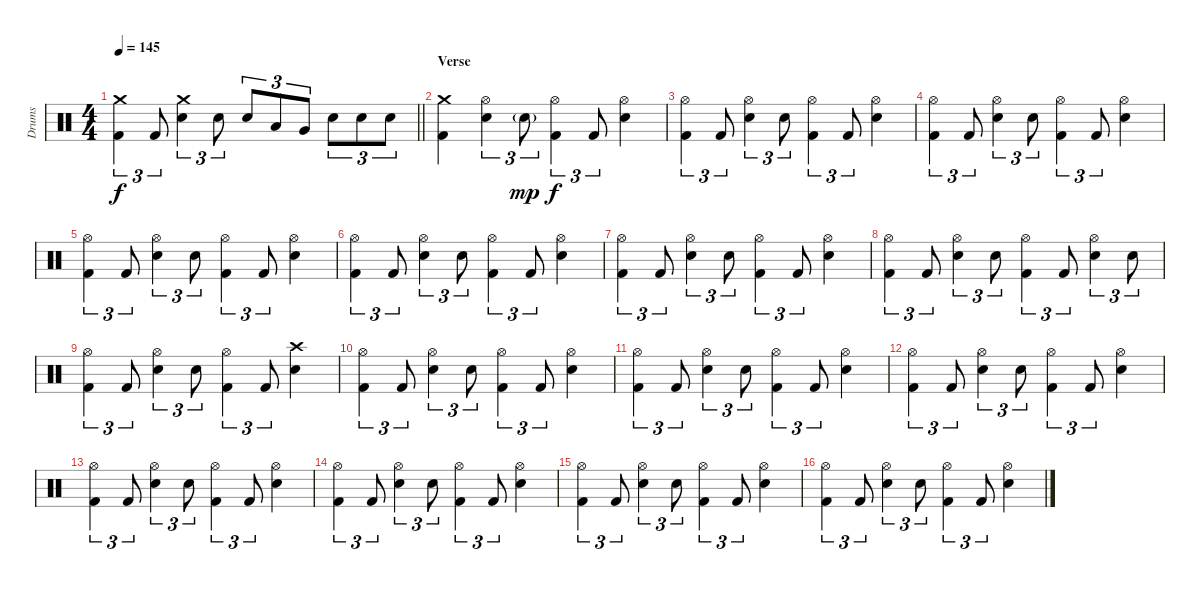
\track ("Drums" "Drums") {instrument percussion}
\staff {score}
\articulation defaults
\ts (4 4)
\tempo 145
\clef neutral
\barLineRight lightlight
\ks c
("Crash medium (hit)" "Kick (hit) 2").4{tu (3 2) dy f} "Kick (hit) 2".8{tu (3 2)} ("Crash medium (hit)" "Electric Snare (hit)").4{tu (3 2)} "Electric Snare (hit)".8{tu (3 2)} "Electric Snare (hit)".8{tu (3 2)} "Low Tom (hit)".8{tu (3 2)} "Very Low Tom (hit)".8{tu (3 2)} "Electric Snare (hit)".8{tu (3 2)} "Electric Snare (hit)".8{tu (3 2)} "Electric Snare (hit)".8{tu (3 2)} |
\section ("" "Verse")
("Crash medium (hit)" "Kick (hit) 2").4 ("Hi-Hat (open)" "Electric Snare (hit)").4{tu (3 2)} "Electric Snare (hit)"{g}.8{tu (3 2) dy mp} ("Hi-Hat (open)" "Kick (hit) 2").4{tu (3 2) dy f} "Kick (hit) 2".8{tu (3 2)} ("Hi-Hat (open)" "Electric Snare (hit)").4 |
("Hi-Hat (open)" "Kick (hit) 2").4{tu (3 2)} "Kick (hit) 2".8{tu (3 2)} ("Hi-Hat (open)" "Electric Snare (hit)").4{tu (3 2)} "Electric Snare (hit)".8{tu (3 2)} ("Hi-Hat (open)" "Kick (hit) 2").4{tu (3 2)} "Kick (hit) 2".8{tu (3 2)} ("Hi-Hat (open)" "Electric Snare (hit)").4 |
("Hi-Hat (open)" "Kick (hit) 2").4{tu (3 2)} "Kick (hit) 2".8{tu (3 2)} ("Hi-Hat (open)" "Electric Snare (hit)").4{tu (3 2)} "Electric Snare (hit)".8{tu (3 2)} ("Hi-Hat (open)" "Kick (hit) 2").4{tu (3 2)} "Kick (hit) 2".8{tu (3 2)} ("Hi-Hat (open)" "Electric Snare (hit)").4 |
("Hi-Hat (open)" "Kick (hit) 2").4{tu (3 2)} "Kick (hit) 2".8{tu (3 2)} ("Hi-Hat (open)" "Electric Snare (hit)").4{tu (3 2)} "Electric Snare (hit)".8{tu (3 2)} ("Hi-Hat (open)" "Kick (hit) 2").4{tu (3 2)} "Kick (hit) 2".8{tu (3 2)} ("Hi-Hat (open)" "Electric Snare (hit)").4 |
("Hi-Hat (open)" "Kick (hit) 2").4{tu (3 2)} "Kick (hit) 2".8{tu (3 2)} ("Hi-Hat (open)" "Electric Snare (hit)").4{tu (3 2)} "Electric Snare (hit)".8{tu (3 2)} ("Hi-Hat (open)" "Kick (hit) 2").4{tu (3 2)} "Kick (hit) 2".8{tu (3 2)} ("Hi-Hat (open)" "Electric Snare (hit)").4 |
("Hi-Hat (open)" "Kick (hit) 2").4{tu (3 2)} "Kick (hit) 2".8{tu (3 2)} ("Hi-Hat (open)" "Electric Snare (hit)").4{tu (3 2)} "Electric Snare (hit)".8{tu (3 2)} ("Hi-Hat (open)" "Kick (hit) 2").4{tu (3 2)} "Kick (hit) 2".8{tu (3 2)} ("Hi-Hat (open)" "Electric Snare (hit)").4 |
("Hi-Hat (open)" "Kick (hit) 2").4{tu (3 2)} "Kick (hit) 2".8{tu (3 2)} ("Hi-Hat (open)" "Electric Snare (hit)").4{tu (3 2)} "Electric Snare (hit)".8{tu (3 2)} ("Hi-Hat (open)" "Kick (hit) 2").4{tu (3 2)} "Kick (hit) 2".8{tu (3 2)} ("Hi-Hat (open)" "Electric Snare (hit)").4{tu (3 2)} "Electric Snare (hit)".8{tu (3 2)} |
("Hi-Hat (open)" "Kick (hit) 2").4{tu (3 2)} "Kick (hit) 2".8{tu (3 2)} ("Hi-Hat (open)" "Electric Snare (hit)").4{tu (3 2)} "Electric Snare (hit)".8{tu (3 2)} ("Hi-Hat (open)" "Kick (hit) 2").4{tu (3 2)} "Kick (hit) 2".8{tu (3 2)} ("Crash high (hit)" "Electric Snare (hit)").4 |
("Hi-Hat (open)" "Kick (hit) 2").4{tu (3 2)} "Kick (hit) 2".8{tu (3 2)} ("Hi-Hat (open)" "Electric Snare (hit)").4{tu (3 2)} "Electric Snare (hit)".8{tu (3 2)} ("Hi-Hat (open)" "Kick (hit) 2").4{tu (3 2)} "Kick (hit) 2".8{tu (3 2)} ("Hi-Hat (open)" "Electric Snare (hit)").4 |
("Hi-Hat (open)" "Kick (hit) 2").4{tu (3 2)} "Kick (hit) 2".8{tu (3 2)} ("Hi-Hat (open)" "Electric Snare (hit)").4{tu (3 2)} "Electric Snare (hit)".8{tu (3 2)} ("Hi-Hat (open)" "Kick (hit) 2").4{tu (3 2)} "Kick (hit) 2".8{tu (3 2)} ("Hi-Hat (open)" "Electric Snare (hit)").4 |
("Hi-Hat (open)" "Kick (hit) 2").4{tu (3 2)} "Kick (hit) 2".8{tu (3 2)} ("Hi-Hat (open)" "Electric Snare (hit)").4{tu (3 2)} "Electric Snare (hit)".8{tu (3 2)} ("Hi-Hat (open)" "Kick (hit) 2").4{tu (3 2)} "Kick (hit) 2".8{tu (3 2)} ("Hi-Hat (open)" "Electric Snare (hit)").4 |
("Hi-Hat (open)" "Kick (hit) 2").4{tu (3 2)} "Kick (hit) 2".8{tu (3 2)} ("Hi-Hat (open)" "Electric Snare (hit)").4{tu (3 2)} "Electric Snare (hit)".8{tu (3 2)} ("Hi-Hat (open)" "Kick (hit) 2").4{tu (3 2)} "Kick (hit) 2".8{tu (3 2)} ("Hi-Hat (open)" "Electric Snare (hit)").4 |
("Hi-Hat (open)" "Kick (hit) 2").4{tu (3 2)} "Kick (hit) 2".8{tu (3 2)} ("Hi-Hat (open)" "Electric Snare (hit)").4{tu (3 2)} "Electric Snare (hit)".8{tu (3 2)} ("Hi-Hat (open)" "Kick (hit) 2").4{tu (3 2)} "Kick (hit) 2".8{tu (3 2)} ("Hi-Hat (open)" "Electric Snare (hit)").4 |
("Hi-Hat (open)" "Kick (hit) 2").4{tu (3 2)} "Kick (hit) 2".8{tu (3 2)} ("Hi-Hat (open)" "Electric Snare (hit)").4{tu (3 2)} "Electric Snare (hit)".8{tu (3 2)} ("Hi-Hat (open)" "Kick (hit) 2").4{tu (3 2)} "Kick (hit) 2".8{tu (3 2)} ("Hi-Hat (open)" "Electric Snare (hit)").4 |
("Hi-Hat (open)" "Kick (hit) 2").4{tu (3 2)} "Kick (hit) 2".8{tu (3 2)} ("Hi-Hat (open)" "Electric Snare (hit)").4{tu (3 2)} "Electric Snare (hit)".8{tu (3 2)} ("Hi-Hat (open)" "Kick (hit) 2").4{tu (3 2)} "Kick (hit) 2".8{tu (3 2)} ("Hi-Hat (open)" "Electric Snare (hit)").4
